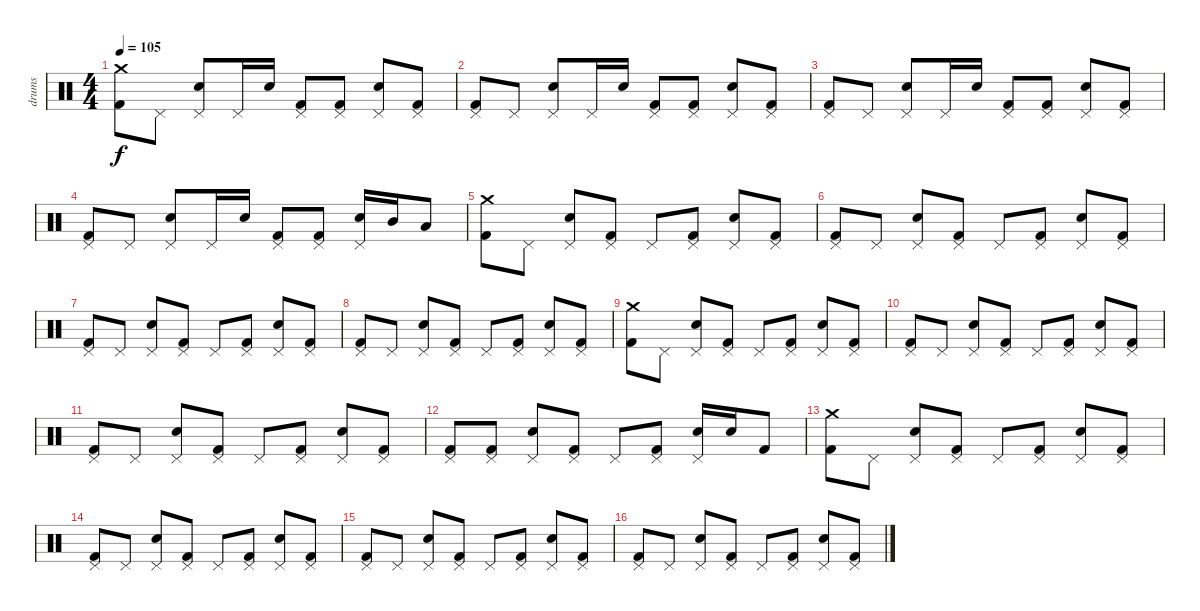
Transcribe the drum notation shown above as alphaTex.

\track ("drums" "drums") {instrument percussion}
\staff {score}
\articulation defaults
\ts (4 4)
\tempo 105
\clef neutral
\ks c
("Crash medium (hit)" "Kick (hit) 2").8{dy f} "Pedal Hi-Hat (hit)".8 ("Pedal Hi-Hat (hit)" "Electric Snare (hit)").8 "Pedal Hi-Hat (hit)".16 "Electric Snare (hit)".16 ("Pedal Hi-Hat (hit)" "Kick (hit) 2").8 ("Pedal Hi-Hat (hit)" "Kick (hit) 2").8 ("Pedal Hi-Hat (hit)" "Electric Snare (hit)").8 ("Pedal Hi-Hat (hit)" "Kick (hit) 2").8 |
("Pedal Hi-Hat (hit)" "Kick (hit) 2").8 "Pedal Hi-Hat (hit)".8 ("Pedal Hi-Hat (hit)" "Electric Snare (hit)").8 "Pedal Hi-Hat (hit)".16 "Electric Snare (hit)".16 ("Pedal Hi-Hat (hit)" "Kick (hit) 2").8 ("Pedal Hi-Hat (hit)" "Kick (hit) 2").8 ("Pedal Hi-Hat (hit)" "Electric Snare (hit)").8 ("Pedal Hi-Hat (hit)" "Kick (hit) 2").8 |
("Pedal Hi-Hat (hit)" "Kick (hit) 2").8 "Pedal Hi-Hat (hit)".8 ("Pedal Hi-Hat (hit)" "Electric Snare (hit)").8 "Pedal Hi-Hat (hit)".16 "Electric Snare (hit)".16 ("Pedal Hi-Hat (hit)" "Kick (hit) 2").8 ("Pedal Hi-Hat (hit)" "Kick (hit) 2").8 ("Pedal Hi-Hat (hit)" "Electric Snare (hit)").8 ("Pedal Hi-Hat (hit)" "Kick (hit) 2").8 |
("Pedal Hi-Hat (hit)" "Kick (hit) 2").8 "Pedal Hi-Hat (hit)".8 ("Pedal Hi-Hat (hit)" "Electric Snare (hit)").8 "Pedal Hi-Hat (hit)".16 "Electric Snare (hit)".16 ("Pedal Hi-Hat (hit)" "Kick (hit) 2").8 ("Pedal Hi-Hat (hit)" "Kick (hit) 2").8 ("Pedal Hi-Hat (hit)" "Electric Snare (hit)").16 "Mid Tom (hit)".16 "Low Tom (hit)".8 |
("Crash medium (hit)" "Kick (hit) 2").8 "Pedal Hi-Hat (hit)".8 ("Pedal Hi-Hat (hit)" "Electric Snare (hit)").8 ("Pedal Hi-Hat (hit)" "Kick (hit) 2").8 "Pedal Hi-Hat (hit)".8 ("Pedal Hi-Hat (hit)" "Kick (hit) 2").8 ("Pedal Hi-Hat (hit)" "Electric Snare (hit)").8 ("Pedal Hi-Hat (hit)" "Kick (hit) 2").8 |
("Pedal Hi-Hat (hit)" "Kick (hit) 2").8 "Pedal Hi-Hat (hit)".8 ("Pedal Hi-Hat (hit)" "Electric Snare (hit)").8 ("Pedal Hi-Hat (hit)" "Kick (hit) 2").8 "Pedal Hi-Hat (hit)".8 ("Pedal Hi-Hat (hit)" "Kick (hit) 2").8 ("Pedal Hi-Hat (hit)" "Electric Snare (hit)").8 ("Pedal Hi-Hat (hit)" "Kick (hit) 2").8 |
("Pedal Hi-Hat (hit)" "Kick (hit) 2").8 "Pedal Hi-Hat (hit)".8 ("Pedal Hi-Hat (hit)" "Electric Snare (hit)").8 ("Pedal Hi-Hat (hit)" "Kick (hit) 2").8 "Pedal Hi-Hat (hit)".8 ("Pedal Hi-Hat (hit)" "Kick (hit) 2").8 ("Pedal Hi-Hat (hit)" "Electric Snare (hit)").8 ("Pedal Hi-Hat (hit)" "Kick (hit) 2").8 |
("Pedal Hi-Hat (hit)" "Kick (hit) 2").8 "Pedal Hi-Hat (hit)".8 ("Pedal Hi-Hat (hit)" "Electric Snare (hit)").8 ("Pedal Hi-Hat (hit)" "Kick (hit) 2").8 "Pedal Hi-Hat (hit)".8 ("Pedal Hi-Hat (hit)" "Kick (hit) 2").8 ("Pedal Hi-Hat (hit)" "Electric Snare (hit)").8 ("Pedal Hi-Hat (hit)" "Kick (hit) 2").8 |
("Crash medium (hit)" "Kick (hit) 2").8 "Pedal Hi-Hat (hit)".8 ("Pedal Hi-Hat (hit)" "Electric Snare (hit)").8 ("Pedal Hi-Hat (hit)" "Kick (hit) 2").8 "Pedal Hi-Hat (hit)".8 ("Pedal Hi-Hat (hit)" "Kick (hit) 2").8 ("Pedal Hi-Hat (hit)" "Electric Snare (hit)").8 ("Pedal Hi-Hat (hit)" "Kick (hit) 2").8 |
("Pedal Hi-Hat (hit)" "Kick (hit) 2").8 "Pedal Hi-Hat (hit)".8 ("Pedal Hi-Hat (hit)" "Electric Snare (hit)").8 ("Pedal Hi-Hat (hit)" "Kick (hit) 2").8 "Pedal Hi-Hat (hit)".8 ("Pedal Hi-Hat (hit)" "Kick (hit) 2").8 ("Pedal Hi-Hat (hit)" "Electric Snare (hit)").8 ("Pedal Hi-Hat (hit)" "Kick (hit) 2").8 |
("Pedal Hi-Hat (hit)" "Kick (hit) 2").8 "Pedal Hi-Hat (hit)".8 ("Pedal Hi-Hat (hit)" "Electric Snare (hit)").8 ("Pedal Hi-Hat (hit)" "Kick (hit) 2").8 "Pedal Hi-Hat (hit)".8 ("Pedal Hi-Hat (hit)" "Kick (hit) 2").8 ("Pedal Hi-Hat (hit)" "Electric Snare (hit)").8 ("Pedal Hi-Hat (hit)" "Kick (hit) 2").8 |
("Pedal Hi-Hat (hit)" "Kick (hit) 2").8 ("Pedal Hi-Hat (hit)" "Kick (hit) 2").8 ("Pedal Hi-Hat (hit)" "Electric Snare (hit)").8 ("Pedal Hi-Hat (hit)" "Kick (hit) 2").8 "Pedal Hi-Hat (hit)".8 ("Pedal Hi-Hat (hit)" "Kick (hit) 2").8 ("Pedal Hi-Hat (hit)" "Electric Snare (hit)").16 "Electric Snare (hit)".16 "Kick (hit) 2".8 |
("Crash medium (hit)" "Kick (hit) 2").8 "Pedal Hi-Hat (hit)".8 ("Pedal Hi-Hat (hit)" "Electric Snare (hit)").8 ("Pedal Hi-Hat (hit)" "Kick (hit) 2").8 "Pedal Hi-Hat (hit)".8 ("Pedal Hi-Hat (hit)" "Kick (hit) 2").8 ("Pedal Hi-Hat (hit)" "Electric Snare (hit)").8 ("Pedal Hi-Hat (hit)" "Kick (hit) 2").8 |
("Pedal Hi-Hat (hit)" "Kick (hit) 2").8 "Pedal Hi-Hat (hit)".8 ("Pedal Hi-Hat (hit)" "Electric Snare (hit)").8 ("Pedal Hi-Hat (hit)" "Kick (hit) 2").8 "Pedal Hi-Hat (hit)".8 ("Pedal Hi-Hat (hit)" "Kick (hit) 2").8 ("Pedal Hi-Hat (hit)" "Electric Snare (hit)").8 ("Pedal Hi-Hat (hit)" "Kick (hit) 2").8 |
("Pedal Hi-Hat (hit)" "Kick (hit) 2").8 "Pedal Hi-Hat (hit)".8 ("Pedal Hi-Hat (hit)" "Electric Snare (hit)").8 ("Pedal Hi-Hat (hit)" "Kick (hit) 2").8 "Pedal Hi-Hat (hit)".8 ("Pedal Hi-Hat (hit)" "Kick (hit) 2").8 ("Pedal Hi-Hat (hit)" "Electric Snare (hit)").8 ("Pedal Hi-Hat (hit)" "Kick (hit) 2").8 |
("Pedal Hi-Hat (hit)" "Kick (hit) 2").8 "Pedal Hi-Hat (hit)".8 ("Pedal Hi-Hat (hit)" "Electric Snare (hit)").8 ("Pedal Hi-Hat (hit)" "Kick (hit) 2").8 "Pedal Hi-Hat (hit)".8 ("Pedal Hi-Hat (hit)" "Kick (hit) 2").8 ("Pedal Hi-Hat (hit)" "Electric Snare (hit)").8 ("Pedal Hi-Hat (hit)" "Kick (hit) 2").8
